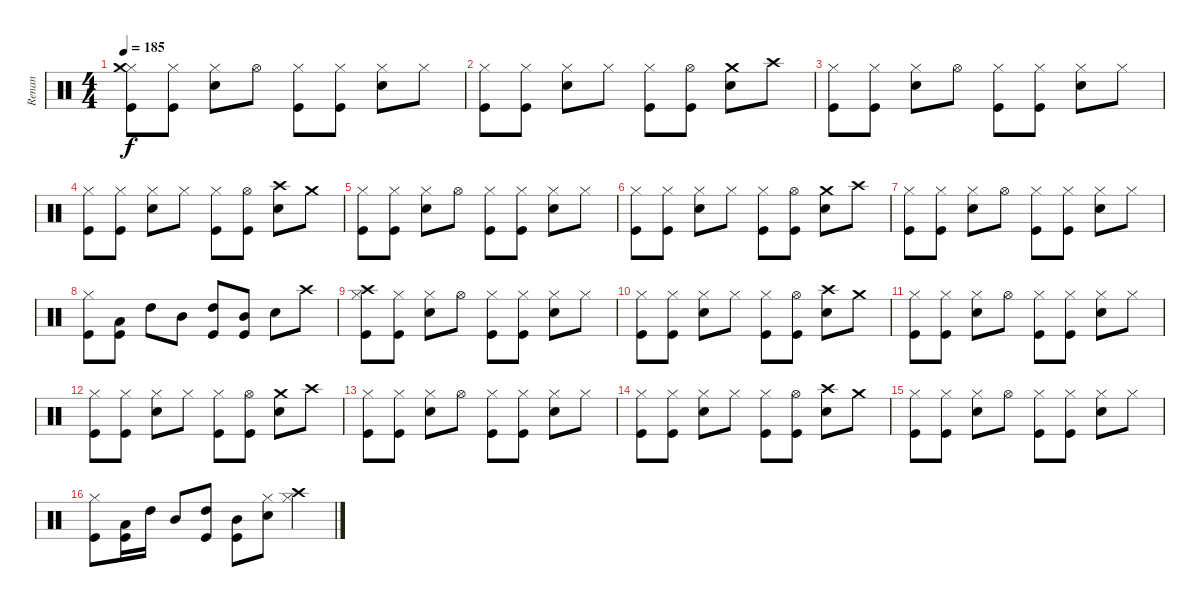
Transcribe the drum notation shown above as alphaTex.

\track ("Renan" "Renan") {instrument percussion}
\staff {score}
\articulation defaults
\ts (4 4)
\tempo 185
\clef neutral
\ks c
("Hi-Hat (closed)" "Crash medium (hit)" "Kick (hit)").8{dy f} ("Hi-Hat (closed)" "Kick (hit)").8 ("Hi-Hat (closed)" "Snare (hit) 2").8 "Hi-Hat (open)".8 ("Hi-Hat (closed)" "Kick (hit)").8 ("Hi-Hat (closed)" "Kick (hit)").8 ("Hi-Hat (closed)" "Snare (hit) 2").8 "Hi-Hat (closed)".8 |
("Hi-Hat (closed)" "Kick (hit)").8 ("Hi-Hat (closed)" "Kick (hit)").8 ("Hi-Hat (closed)" "Snare (hit) 2").8 "Hi-Hat (closed)".8 ("Hi-Hat (closed)" "Kick (hit)").8 ("Hi-Hat (open)" "Kick (hit)").8 ("Crash medium (hit)" "Snare (hit) 2").8 "Crash high (hit)".8 |
("Hi-Hat (closed)" "Kick (hit)").8 ("Hi-Hat (closed)" "Kick (hit)").8 ("Hi-Hat (closed)" "Snare (hit) 2").8 "Hi-Hat (open)".8 ("Hi-Hat (closed)" "Kick (hit)").8 ("Hi-Hat (closed)" "Kick (hit)").8 ("Hi-Hat (closed)" "Snare (hit) 2").8 "Hi-Hat (closed)".8 |
("Hi-Hat (closed)" "Kick (hit)").8 ("Hi-Hat (closed)" "Kick (hit)").8 ("Hi-Hat (closed)" "Snare (hit) 2").8 "Hi-Hat (closed)".8 ("Hi-Hat (closed)" "Kick (hit)").8 ("Hi-Hat (open)" "Kick (hit)").8 ("Crash high (hit)" "Snare (hit) 2").8 "Crash medium (hit)".8 |
("Hi-Hat (closed)" "Kick (hit)").8 ("Hi-Hat (closed)" "Kick (hit)").8 ("Hi-Hat (closed)" "Snare (hit) 2").8 "Hi-Hat (open)".8 ("Hi-Hat (closed)" "Kick (hit)").8 ("Hi-Hat (closed)" "Kick (hit)").8 ("Hi-Hat (closed)" "Snare (hit) 2").8 "Hi-Hat (closed)".8 |
("Hi-Hat (closed)" "Kick (hit)").8 ("Hi-Hat (closed)" "Kick (hit)").8 ("Hi-Hat (closed)" "Snare (hit) 2").8 "Hi-Hat (closed)".8 ("Hi-Hat (closed)" "Kick (hit)").8 ("Hi-Hat (open)" "Kick (hit)").8 ("Crash medium (hit)" "Snare (hit) 2").8 "Crash high (hit)".8 |
("Hi-Hat (closed)" "Kick (hit)").8 ("Hi-Hat (closed)" "Kick (hit)").8 ("Hi-Hat (closed)" "Snare (hit) 2").8 "Hi-Hat (open)".8 ("Hi-Hat (closed)" "Kick (hit)").8 ("Hi-Hat (closed)" "Kick (hit)").8 ("Hi-Hat (closed)" "Snare (hit) 2").8 "Hi-Hat (closed)".8 |
("Hi-Hat (closed)" "Kick (hit)").8 ("Low Floor Tom (hit)" "Kick (hit)").8 "High Tom (hit)".8 "Mid Tom (hit)".8 ("High Tom (hit)" "Kick (hit)").8 ("Mid Tom (hit)" "Kick (hit)").8 "Snare (hit) 2".8 "Crash high (hit)".8 |
("Hi-Hat (closed)" "Crash high (hit)" "Kick (hit)").8 ("Hi-Hat (closed)" "Kick (hit)").8 ("Hi-Hat (closed)" "Snare (hit) 2").8 "Hi-Hat (open)".8 ("Hi-Hat (closed)" "Kick (hit)").8 ("Hi-Hat (closed)" "Kick (hit)").8 ("Hi-Hat (closed)" "Snare (hit) 2").8 "Hi-Hat (closed)".8 |
("Hi-Hat (closed)" "Kick (hit)").8 ("Hi-Hat (closed)" "Kick (hit)").8 ("Hi-Hat (closed)" "Snare (hit) 2").8 "Hi-Hat (closed)".8 ("Hi-Hat (closed)" "Kick (hit)").8 ("Hi-Hat (open)" "Kick (hit)").8 ("Crash high (hit)" "Snare (hit) 2").8 "Crash medium (hit)".8 |
("Hi-Hat (closed)" "Kick (hit)").8 ("Hi-Hat (closed)" "Kick (hit)").8 ("Hi-Hat (closed)" "Snare (hit) 2").8 "Hi-Hat (open)".8 ("Hi-Hat (closed)" "Kick (hit)").8 ("Hi-Hat (closed)" "Kick (hit)").8 ("Hi-Hat (closed)" "Snare (hit) 2").8 "Hi-Hat (closed)".8 |
("Hi-Hat (closed)" "Kick (hit)").8 ("Hi-Hat (closed)" "Kick (hit)").8 ("Hi-Hat (closed)" "Snare (hit) 2").8 "Hi-Hat (closed)".8 ("Hi-Hat (closed)" "Kick (hit)").8 ("Hi-Hat (open)" "Kick (hit)").8 ("Crash medium (hit)" "Snare (hit) 2").8 "Crash high (hit)".8 |
("Hi-Hat (closed)" "Kick (hit)").8 ("Hi-Hat (closed)" "Kick (hit)").8 ("Hi-Hat (closed)" "Snare (hit) 2").8 "Hi-Hat (open)".8 ("Hi-Hat (closed)" "Kick (hit)").8 ("Hi-Hat (closed)" "Kick (hit)").8 ("Hi-Hat (closed)" "Snare (hit) 2").8 "Hi-Hat (closed)".8 |
("Hi-Hat (closed)" "Kick (hit)").8 ("Hi-Hat (closed)" "Kick (hit)").8 ("Hi-Hat (closed)" "Snare (hit) 2").8 "Hi-Hat (closed)".8 ("Hi-Hat (closed)" "Kick (hit)").8 ("Hi-Hat (open)" "Kick (hit)").8 ("Crash high (hit)" "Snare (hit) 2").8 "Crash medium (hit)".8 |
("Hi-Hat (closed)" "Kick (hit)").8 ("Hi-Hat (closed)" "Kick (hit)").8 ("Hi-Hat (closed)" "Snare (hit) 2").8 "Hi-Hat (open)".8 ("Hi-Hat (closed)" "Kick (hit)").8 ("Hi-Hat (closed)" "Kick (hit)").8 ("Hi-Hat (closed)" "Snare (hit) 2").8 "Hi-Hat (closed)".8 |
("Hi-Hat (closed)" "Kick (hit)").8 ("Low Floor Tom (hit)" "Kick (hit)").16 "High Tom (hit)".16 "Mid Tom (hit)".8 ("High Tom (hit)" "Kick (hit)").8 ("Mid Tom (hit)" "Kick (hit)").8 ("Hi-Hat (closed)" "Snare (hit) 2").8 ("Hi-Hat (closed)" "Crash high (hit)").4
